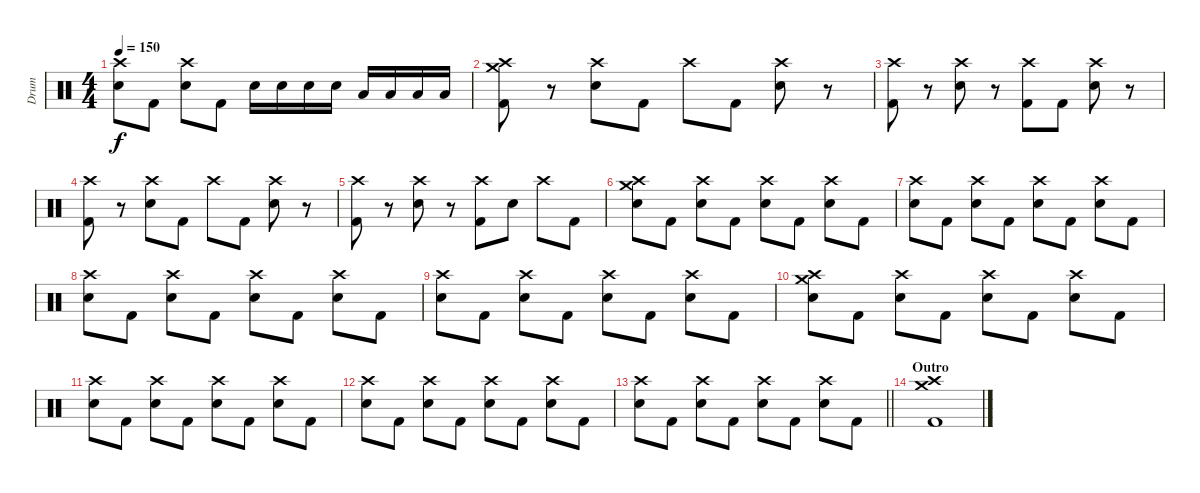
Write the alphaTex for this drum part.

\track ("Drum" "Drum") {instrument percussion}
\staff {score}
\articulation defaults
\ts (4 4)
\tempo 150
\clef neutral
\ks c
("Crash high (hit)" "Electric Snare (hit)").8{dy f} "Kick (hit) 2".8 ("Crash high (hit)" "Electric Snare (hit)").8 "Kick (hit) 2".8 "Electric Snare (hit)".16 "Electric Snare (hit)".16 "Electric Snare (hit)".16 "Electric Snare (hit)".16 "Low Floor Tom (hit)".16 "Low Floor Tom (hit)".16 "Low Floor Tom (hit)".16 "Low Floor Tom (hit)".16 |
("Crash high (hit)" "Kick (hit) 2" "Crash medium (hit)").8 r.8 ("Crash high (hit)" "Electric Snare (hit)").8 "Kick (hit) 2".8 "Crash high (hit)".8 "Kick (hit) 2".8 ("Crash high (hit)" "Electric Snare (hit)").8 r.8 |
("Crash high (hit)" "Kick (hit) 2").8 r.8 ("Crash high (hit)" "Electric Snare (hit)").8 r.8 ("Crash high (hit)" "Kick (hit) 2").8 "Kick (hit) 2".8 ("Crash high (hit)" "Electric Snare (hit)").8 r.8 |
("Crash high (hit)" "Kick (hit) 2").8 r.8 ("Crash high (hit)" "Electric Snare (hit)").8 "Kick (hit) 2".8 "Crash high (hit)".8 "Kick (hit) 2".8 ("Crash high (hit)" "Electric Snare (hit)").8 r.8 |
("Crash high (hit)" "Kick (hit) 2").8 r.8 ("Crash high (hit)" "Electric Snare (hit)").8 r.8 ("Crash high (hit)" "Kick (hit) 2").8 "Electric Snare (hit)".8 "Crash high (hit)".8 "Kick (hit) 2".8 |
("Crash high (hit)" "Electric Snare (hit)" "Crash medium (hit)").8 "Kick (hit) 2".8 ("Crash high (hit)" "Electric Snare (hit)").8 "Kick (hit) 2".8 ("Crash high (hit)" "Electric Snare (hit)").8 "Kick (hit) 2".8 ("Crash high (hit)" "Electric Snare (hit)").8 "Kick (hit) 2".8 |
("Crash high (hit)" "Electric Snare (hit)").8 "Kick (hit) 2".8 ("Crash high (hit)" "Electric Snare (hit)").8 "Kick (hit) 2".8 ("Crash high (hit)" "Electric Snare (hit)").8 "Kick (hit) 2".8 ("Crash high (hit)" "Electric Snare (hit)").8 "Kick (hit) 2".8 |
("Crash high (hit)" "Electric Snare (hit)").8 "Kick (hit) 2".8 ("Crash high (hit)" "Electric Snare (hit)").8 "Kick (hit) 2".8 ("Crash high (hit)" "Electric Snare (hit)").8 "Kick (hit) 2".8 ("Crash high (hit)" "Electric Snare (hit)").8 "Kick (hit) 2".8 |
("Crash high (hit)" "Electric Snare (hit)").8 "Kick (hit) 2".8 ("Crash high (hit)" "Electric Snare (hit)").8 "Kick (hit) 2".8 ("Crash high (hit)" "Electric Snare (hit)").8 "Kick (hit) 2".8 ("Crash high (hit)" "Electric Snare (hit)").8 "Kick (hit) 2".8 |
("Crash high (hit)" "Electric Snare (hit)" "Crash medium (hit)").8 "Kick (hit) 2".8 ("Crash high (hit)" "Electric Snare (hit)").8 "Kick (hit) 2".8 ("Crash high (hit)" "Electric Snare (hit)").8 "Kick (hit) 2".8 ("Crash high (hit)" "Electric Snare (hit)").8 "Kick (hit) 2".8 |
("Crash high (hit)" "Electric Snare (hit)").8 "Kick (hit) 2".8 ("Crash high (hit)" "Electric Snare (hit)").8 "Kick (hit) 2".8 ("Crash high (hit)" "Electric Snare (hit)").8 "Kick (hit) 2".8 ("Crash high (hit)" "Electric Snare (hit)").8 "Kick (hit) 2".8 |
("Crash high (hit)" "Electric Snare (hit)").8 "Kick (hit) 2".8 ("Crash high (hit)" "Electric Snare (hit)").8 "Kick (hit) 2".8 ("Crash high (hit)" "Electric Snare (hit)").8 "Kick (hit) 2".8 ("Crash high (hit)" "Electric Snare (hit)").8 "Kick (hit) 2".8 |
\barLineRight lightlight
("Crash high (hit)" "Electric Snare (hit)").8 "Kick (hit) 2".8 ("Crash high (hit)" "Electric Snare (hit)").8 "Kick (hit) 2".8 ("Crash high (hit)" "Electric Snare (hit)").8 "Kick (hit) 2".8 ("Crash high (hit)" "Electric Snare (hit)").8 "Kick (hit) 2".8 |
\section ("" "Outro")
("Crash high (hit)" "Crash medium (hit)" "Kick (hit) 2").1
